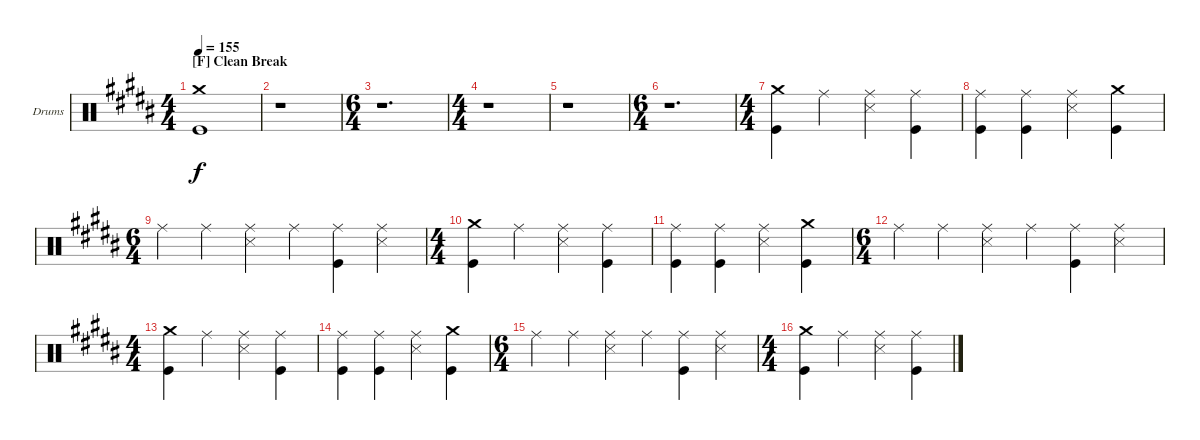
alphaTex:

\bracketExtendMode groupsimilarinstruments
\firstSystemTrackNameOrientation horizontal
\otherSystemsTrackNameOrientation horizontal
\track ("Navene Koperweis" "Drums") {instrument percussion}
\staff {score}
\articulation defaults
\ts (4 4)
\beaming (8 2 2 2 2)
\section ("F" "Clean Break")
\tempo 155
\clef neutral
\ks b
("Crash medium (hit)" "Kick (hit)").1{dy f} |
r.1 |
\ts (6 4)
\beaming (8 6 6)
r.1{d} |
\ts (4 4)
\beaming (8 2 2 2 2)
r.1 |
r.1 |
\ts (6 4)
\beaming (8 2 2 2 6)
r.1{d} |
\ts (4 4)
\beaming (8 2 2 2 2)
("Crash medium (hit)" "Kick (hit)").4 "Ride (middle)".4 ("Ride (middle)" "Snare (side stick) 3").4 ("Ride (middle)" "Kick (hit)").4 |
("Ride (middle)" "Kick (hit)").4 ("Ride (middle)" "Kick (hit)").4 ("Ride (middle)" "Snare (side stick) 3").4 ("Crash medium (hit)" "Kick (hit)").4 |
\ts (6 4)
\beaming (8 6 6)
"Ride (middle)".4 "Ride (middle)".4 ("Ride (middle)" "Snare (side stick) 3").4 "Ride (middle)".4 ("Ride (middle)" "Kick (hit)").4 ("Ride (middle)" "Snare (side stick) 3").4 |
\ts (4 4)
\beaming (8 2 2 2 2)
("Crash medium (hit)" "Kick (hit)").4 "Ride (middle)".4 ("Ride (middle)" "Snare (side stick) 3").4 ("Ride (middle)" "Kick (hit)").4 |
("Ride (middle)" "Kick (hit)").4 ("Ride (middle)" "Kick (hit)").4 ("Ride (middle)" "Snare (side stick) 3").4 ("Crash medium (hit)" "Kick (hit)").4 |
\ts (6 4)
\beaming (8 2 2 2 6)
"Ride (middle)".4 "Ride (middle)".4 ("Ride (middle)" "Snare (side stick) 3").4 "Ride (middle)".4 ("Ride (middle)" "Kick (hit)").4 ("Ride (middle)" "Snare (side stick) 3").4 |
\ts (4 4)
\beaming (8 2 2 2 2)
("Crash medium (hit)" "Kick (hit)").4 "Ride (middle)".4 ("Ride (middle)" "Snare (side stick) 3").4 ("Ride (middle)" "Kick (hit)").4 |
("Ride (middle)" "Kick (hit)").4 ("Ride (middle)" "Kick (hit)").4 ("Ride (middle)" "Snare (side stick) 3").4 ("Crash medium (hit)" "Kick (hit)").4 |
\ts (6 4)
\beaming (8 6 6)
"Ride (middle)".4 "Ride (middle)".4 ("Ride (middle)" "Snare (side stick) 3").4 "Ride (middle)".4 ("Ride (middle)" "Kick (hit)").4 ("Ride (middle)" "Snare (side stick) 3").4 |
\ts (4 4)
\beaming (8 2 2 2 2)
("Crash medium (hit)" "Kick (hit)").4 "Ride (middle)".4 ("Ride (middle)" "Snare (side stick) 3").4 ("Ride (middle)" "Kick (hit)").4
